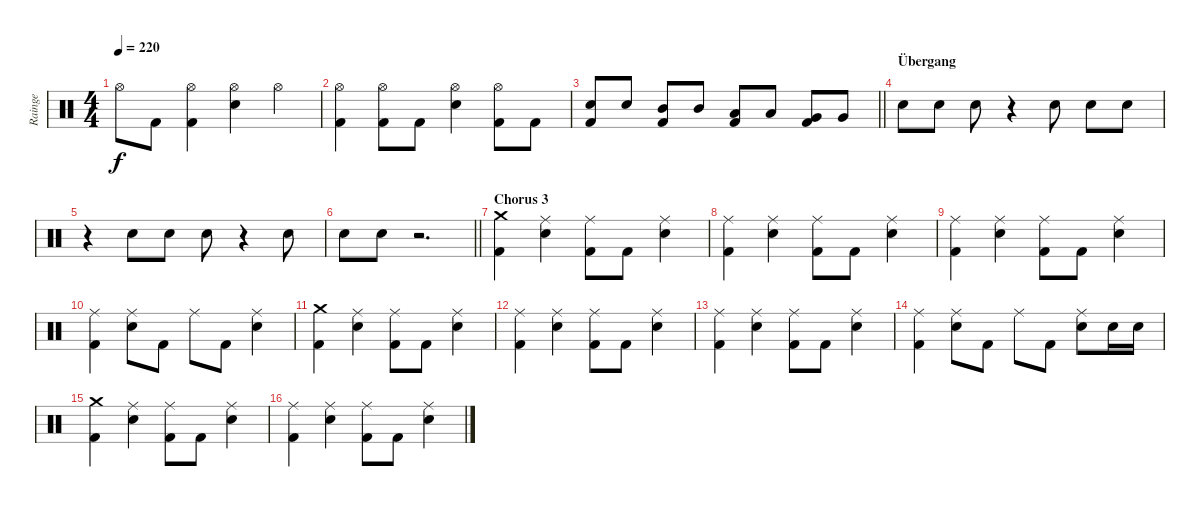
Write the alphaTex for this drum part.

\track ("Rainge" "Rainge") {instrument percussion}
\staff {score}
\articulation defaults
\ts (4 4)
\tempo 220
\clef neutral
\ks c "Hi-Hat (open)".8{dy f} "Kick (hit) 2".8
("Hi-Hat (open)" "Kick (hit) 2").4 ("Hi-Hat (open)" "Electric Snare (hit)").4 "Hi-Hat (open)".4 |
("Hi-Hat (open)" "Kick (hit) 2").4 ("Hi-Hat (open)" "Kick (hit) 2").8 "Kick (hit) 2".8 ("Hi-Hat (open)" "Electric Snare (hit)").4 ("Hi-Hat (open)" "Kick (hit) 2").8 "Kick (hit) 2".8 |
\barLineRight lightlight
("Electric Snare (hit)" "Kick (hit) 2").8 "Electric Snare (hit)".8 ("Mid Tom (hit)" "Kick (hit) 2").8 "Mid Tom (hit)".8 ("Low Tom (hit)" "Kick (hit) 2").8 "Low Tom (hit)".8 ("Very Low Tom (hit)" "Kick (hit) 2").8 "Very Low Tom (hit)".8 |
\section ("" "Übergang")
"Electric Snare (hit)".8 "Electric Snare (hit)".8 "Electric Snare (hit)".8 r.4 "Electric Snare (hit)".8 "Electric Snare (hit)".8 "Electric Snare (hit)".8 |
r.4 "Electric Snare (hit)".8 "Electric Snare (hit)".8 "Electric Snare (hit)".8 r.4 "Electric Snare (hit)".8 |
\barLineRight lightlight "Electric Snare (hit)".8 "Electric Snare (hit)".8
r.2{d} |
\section ("" "Chorus 3")
("Crash medium (hit)" "Kick (hit) 2").4 ("Ride (middle)" "Electric Snare (hit)").4 ("Ride (middle)" "Kick (hit) 2").8 "Kick (hit) 2".8 ("Ride (middle)" "Electric Snare (hit)").4 |
("Ride (middle)" "Kick (hit) 2").4 ("Ride (middle)" "Electric Snare (hit)").4 ("Ride (middle)" "Kick (hit) 2").8 "Kick (hit) 2".8 ("Ride (middle)" "Electric Snare (hit)").4 |
("Ride (middle)" "Kick (hit) 2").4 ("Ride (middle)" "Electric Snare (hit)").4 ("Ride (middle)" "Kick (hit) 2").8 "Kick (hit) 2".8 ("Ride (middle)" "Electric Snare (hit)").4 |
("Ride (middle)" "Kick (hit) 2").4 ("Ride (middle)" "Electric Snare (hit)").8 "Kick (hit) 2".8 "Ride (middle)".8 "Kick (hit) 2".8 ("Ride (middle)" "Electric Snare (hit)").4 |
("Crash medium (hit)" "Kick (hit) 2").4 ("Ride (middle)" "Electric Snare (hit)").4 ("Ride (middle)" "Kick (hit) 2").8 "Kick (hit) 2".8 ("Ride (middle)" "Electric Snare (hit)").4 |
("Ride (middle)" "Kick (hit) 2").4 ("Ride (middle)" "Electric Snare (hit)").4 ("Ride (middle)" "Kick (hit) 2").8 "Kick (hit) 2".8 ("Ride (middle)" "Electric Snare (hit)").4 |
("Ride (middle)" "Kick (hit) 2").4 ("Ride (middle)" "Electric Snare (hit)").4 ("Ride (middle)" "Kick (hit) 2").8 "Kick (hit) 2".8 ("Ride (middle)" "Electric Snare (hit)").4 |
("Ride (middle)" "Kick (hit) 2").4 ("Ride (middle)" "Electric Snare (hit)").8 "Kick (hit) 2".8 "Ride (middle)".8 "Kick (hit) 2".8 ("Ride (middle)" "Electric Snare (hit)").8 "Electric Snare (hit)".16 "Electric Snare (hit)".16 |
("Crash medium (hit)" "Kick (hit) 2").4 ("Ride (middle)" "Electric Snare (hit)").4 ("Ride (middle)" "Kick (hit) 2").8 "Kick (hit) 2".8 ("Ride (middle)" "Electric Snare (hit)").4 |
("Ride (middle)" "Kick (hit) 2").4 ("Ride (middle)" "Electric Snare (hit)").4 ("Ride (middle)" "Kick (hit) 2").8 "Kick (hit) 2".8 ("Ride (middle)" "Electric Snare (hit)").4
